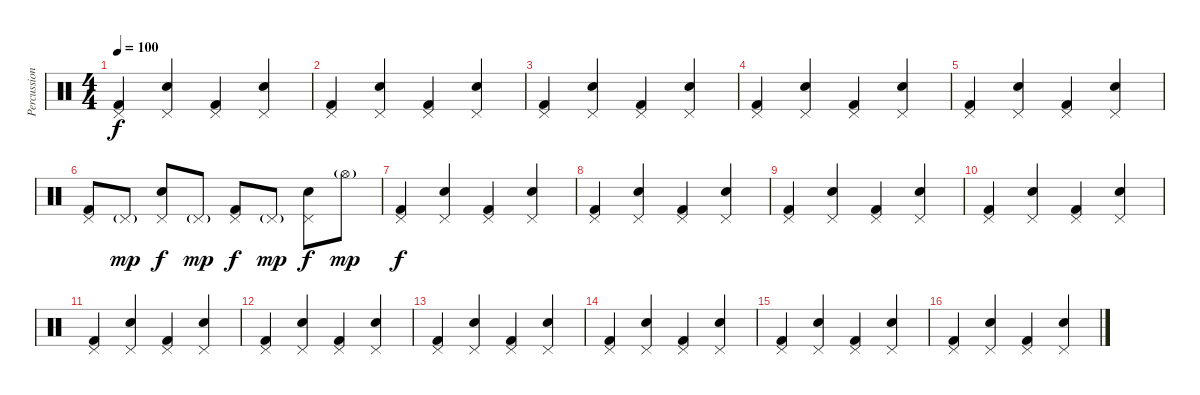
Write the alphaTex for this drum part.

\track ("Percussion" "Percussion") {instrument percussion}
\staff {score}
\articulation defaults
\ts (4 4)
\tempo 100
\clef neutral
\ks c
("Pedal Hi-Hat (hit)" "Kick (hit) 2").4{dy f} ("Pedal Hi-Hat (hit)" "Electric Snare (hit)").4 ("Pedal Hi-Hat (hit)" "Kick (hit) 2").4 ("Pedal Hi-Hat (hit)" "Electric Snare (hit)").4 |
("Pedal Hi-Hat (hit)" "Kick (hit) 2").4 ("Pedal Hi-Hat (hit)" "Electric Snare (hit)").4 ("Pedal Hi-Hat (hit)" "Kick (hit) 2").4 ("Pedal Hi-Hat (hit)" "Electric Snare (hit)").4 |
("Pedal Hi-Hat (hit)" "Kick (hit) 2").4 ("Pedal Hi-Hat (hit)" "Electric Snare (hit)").4 ("Pedal Hi-Hat (hit)" "Kick (hit) 2").4 ("Pedal Hi-Hat (hit)" "Electric Snare (hit)").4 |
("Pedal Hi-Hat (hit)" "Kick (hit) 2").4 ("Pedal Hi-Hat (hit)" "Electric Snare (hit)").4 ("Pedal Hi-Hat (hit)" "Kick (hit) 2").4 ("Pedal Hi-Hat (hit)" "Electric Snare (hit)").4 |
("Pedal Hi-Hat (hit)" "Kick (hit) 2").4 ("Pedal Hi-Hat (hit)" "Electric Snare (hit)").4 ("Pedal Hi-Hat (hit)" "Kick (hit) 2").4 ("Pedal Hi-Hat (hit)" "Electric Snare (hit)").4 |
("Pedal Hi-Hat (hit)" "Kick (hit) 2").8 "Pedal Hi-Hat (hit)"{g}.8{dy mp} ("Pedal Hi-Hat (hit)" "Electric Snare (hit)").8{dy f} "Pedal Hi-Hat (hit)"{g}.8{dy mp} ("Pedal Hi-Hat (hit)" "Kick (hit) 2").8{dy f} "Pedal Hi-Hat (hit)"{g}.8{dy mp} ("Pedal Hi-Hat (hit)" "Electric Snare (hit)").8{dy f} "Hi-Hat (open)"{g}.8{dy mp} |
("Pedal Hi-Hat (hit)" "Kick (hit) 2").4{dy f} ("Pedal Hi-Hat (hit)" "Electric Snare (hit)").4 ("Pedal Hi-Hat (hit)" "Kick (hit) 2").4 ("Pedal Hi-Hat (hit)" "Electric Snare (hit)").4 |
("Pedal Hi-Hat (hit)" "Kick (hit) 2").4 ("Pedal Hi-Hat (hit)" "Electric Snare (hit)").4 ("Pedal Hi-Hat (hit)" "Kick (hit) 2").4 ("Pedal Hi-Hat (hit)" "Electric Snare (hit)").4 |
("Pedal Hi-Hat (hit)" "Kick (hit) 2").4 ("Pedal Hi-Hat (hit)" "Electric Snare (hit)").4 ("Pedal Hi-Hat (hit)" "Kick (hit) 2").4 ("Pedal Hi-Hat (hit)" "Electric Snare (hit)").4 |
("Pedal Hi-Hat (hit)" "Kick (hit) 2").4 ("Pedal Hi-Hat (hit)" "Electric Snare (hit)").4 ("Pedal Hi-Hat (hit)" "Kick (hit) 2").4 ("Pedal Hi-Hat (hit)" "Electric Snare (hit)").4 |
("Pedal Hi-Hat (hit)" "Kick (hit) 2").4 ("Pedal Hi-Hat (hit)" "Electric Snare (hit)").4 ("Pedal Hi-Hat (hit)" "Kick (hit) 2").4 ("Pedal Hi-Hat (hit)" "Electric Snare (hit)").4 |
("Pedal Hi-Hat (hit)" "Kick (hit) 2").4 ("Pedal Hi-Hat (hit)" "Electric Snare (hit)").4 ("Pedal Hi-Hat (hit)" "Kick (hit) 2").4 ("Pedal Hi-Hat (hit)" "Electric Snare (hit)").4 |
("Pedal Hi-Hat (hit)" "Kick (hit) 2").4 ("Pedal Hi-Hat (hit)" "Electric Snare (hit)").4 ("Pedal Hi-Hat (hit)" "Kick (hit) 2").4 ("Pedal Hi-Hat (hit)" "Electric Snare (hit)").4 |
("Pedal Hi-Hat (hit)" "Kick (hit) 2").4 ("Pedal Hi-Hat (hit)" "Electric Snare (hit)").4 ("Pedal Hi-Hat (hit)" "Kick (hit) 2").4 ("Pedal Hi-Hat (hit)" "Electric Snare (hit)").4 |
("Pedal Hi-Hat (hit)" "Kick (hit) 2").4 ("Pedal Hi-Hat (hit)" "Electric Snare (hit)").4 ("Pedal Hi-Hat (hit)" "Kick (hit) 2").4 ("Pedal Hi-Hat (hit)" "Electric Snare (hit)").4 |
("Pedal Hi-Hat (hit)" "Kick (hit) 2").4 ("Pedal Hi-Hat (hit)" "Electric Snare (hit)").4 ("Pedal Hi-Hat (hit)" "Kick (hit) 2").4 ("Pedal Hi-Hat (hit)" "Electric Snare (hit)").4
